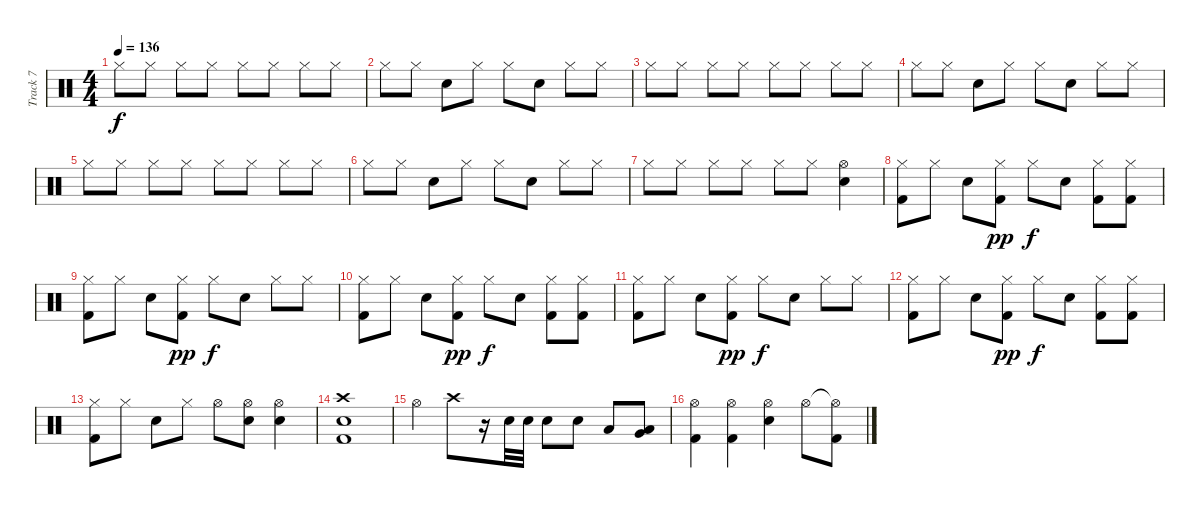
\track ("Track 7" "Track 7") {instrument percussion}
\staff {score}
\articulation defaults
\ts (4 4)
\tempo 136
\clef neutral
\ks c "Hi-Hat (closed)".8{dy f} "Hi-Hat (closed)".8 "Hi-Hat (closed)".8 "Hi-Hat (closed)".8 "Hi-Hat (closed)".8 "Hi-Hat (closed)".8 "Hi-Hat (closed)".8 "Hi-Hat (closed)".8
|
"Hi-Hat (closed)".8 "Hi-Hat (closed)".8 "Electric Snare (hit)".8 "Hi-Hat (closed)".8 "Hi-Hat (closed)".8 "Electric Snare (hit)".8 "Hi-Hat (closed)".8 "Hi-Hat (closed)".8 |
"Hi-Hat (closed)".8 "Hi-Hat (closed)".8 "Hi-Hat (closed)".8 "Hi-Hat (closed)".8 "Hi-Hat (closed)".8 "Hi-Hat (closed)".8 "Hi-Hat (closed)".8 "Hi-Hat (closed)".8 |
"Hi-Hat (closed)".8 "Hi-Hat (closed)".8 "Electric Snare (hit)".8 "Hi-Hat (closed)".8 "Hi-Hat (closed)".8 "Electric Snare (hit)".8 "Hi-Hat (closed)".8 "Hi-Hat (closed)".8 |
"Hi-Hat (closed)".8 "Hi-Hat (closed)".8 "Hi-Hat (closed)".8 "Hi-Hat (closed)".8 "Hi-Hat (closed)".8 "Hi-Hat (closed)".8 "Hi-Hat (closed)".8 "Hi-Hat (closed)".8 |
"Hi-Hat (closed)".8 "Hi-Hat (closed)".8 "Electric Snare (hit)".8 "Hi-Hat (closed)".8 "Hi-Hat (closed)".8 "Electric Snare (hit)".8 "Hi-Hat (closed)".8 "Hi-Hat (closed)".8 |
"Hi-Hat (closed)".8 "Hi-Hat (closed)".8 "Hi-Hat (closed)".8 "Hi-Hat (closed)".8 "Hi-Hat (closed)".8 "Hi-Hat (closed)".8 ("Hi-Hat (open)" "Electric Snare (hit)").4 |
("Hi-Hat (closed)" "Kick (hit) 2").8 "Hi-Hat (closed)".8 "Electric Snare (hit)".8 ("Hi-Hat (closed)" "Kick (hit) 2").8{dy pp} "Hi-Hat (closed)".8{dy f} "Electric Snare (hit)".8 ("Hi-Hat (closed)" "Kick (hit) 2").8 ("Hi-Hat (closed)" "Kick (hit) 2").8 |
("Hi-Hat (closed)" "Kick (hit) 2").8 "Hi-Hat (closed)".8 "Electric Snare (hit)".8 ("Hi-Hat (closed)" "Kick (hit) 2").8{dy pp} "Hi-Hat (closed)".8{dy f} "Electric Snare (hit)".8 "Hi-Hat (closed)".8 "Hi-Hat (closed)".8 |
("Hi-Hat (closed)" "Kick (hit) 2").8 "Hi-Hat (closed)".8 "Electric Snare (hit)".8 ("Hi-Hat (closed)" "Kick (hit) 2").8{dy pp} "Hi-Hat (closed)".8{dy f} "Electric Snare (hit)".8 ("Hi-Hat (closed)" "Kick (hit) 2").8 ("Hi-Hat (closed)" "Kick (hit) 2").8 |
("Hi-Hat (closed)" "Kick (hit) 2").8 "Hi-Hat (closed)".8 "Electric Snare (hit)".8 ("Hi-Hat (closed)" "Kick (hit) 2").8{dy pp} "Hi-Hat (closed)".8{dy f} "Electric Snare (hit)".8 "Hi-Hat (closed)".8 "Hi-Hat (closed)".8 |
("Hi-Hat (closed)" "Kick (hit) 2").8 "Hi-Hat (closed)".8 "Electric Snare (hit)".8 ("Hi-Hat (closed)" "Kick (hit) 2").8{dy pp} "Hi-Hat (closed)".8{dy f} "Electric Snare (hit)".8 ("Hi-Hat (closed)" "Kick (hit) 2").8 ("Hi-Hat (closed)" "Kick (hit) 2").8 |
("Hi-Hat (closed)" "Kick (hit) 2").8 "Hi-Hat (closed)".8 "Electric Snare (hit)".8 "Hi-Hat (closed)".8 "Hi-Hat (open)".8 ("Hi-Hat (open)" "Electric Snare (hit)").8 ("Hi-Hat (open)" "Electric Snare (hit)").4 |
("Crash high (hit)" "Electric Snare (hit)" "Kick (hit) 2").1 |
"Hi-Hat (open)".4 "Crash high (hit)".8 r.16 "Electric Snare (hit)".32 "Electric Snare (hit)".32 "Electric Snare (hit)".8 "Electric Snare (hit)".8 "Low Tom (hit)".8 ("Low Tom (hit)" "Very Low Tom (hit)").8 |
("Hi-Hat (open)" "Kick (hit) 2").4 ("Hi-Hat (open)" "Kick (hit) 2").4 ("Hi-Hat (open)" "Electric Snare (hit)").4 "Hi-Hat (open)".8 ("Hi-Hat (open)"{t} "Kick (hit) 2").8
